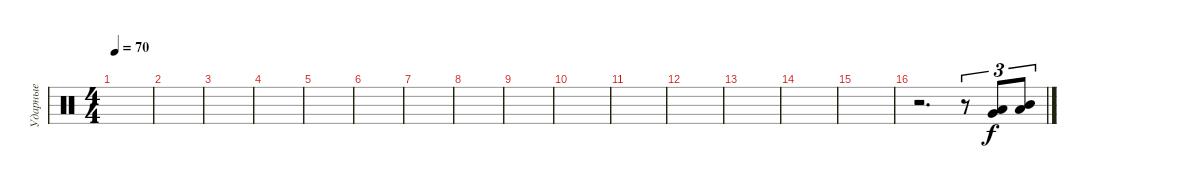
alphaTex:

\track ("Ударные" "Ударные") {instrument percussion}
\staff {score}
\articulation defaults
\ts (4 4)
\tempo 70
\clef neutral
\ks c
|
|
|
|
|
|
|
|
|
|
|
|
|
|
|
r.2{d} r.8{tu (3 2)} ("Very Low Tom (hit)" "Low Tom (hit)").8{tu (3 2)} ("Low Floor Tom (hit)" "Mid Tom (hit)").8{tu (3 2)}
